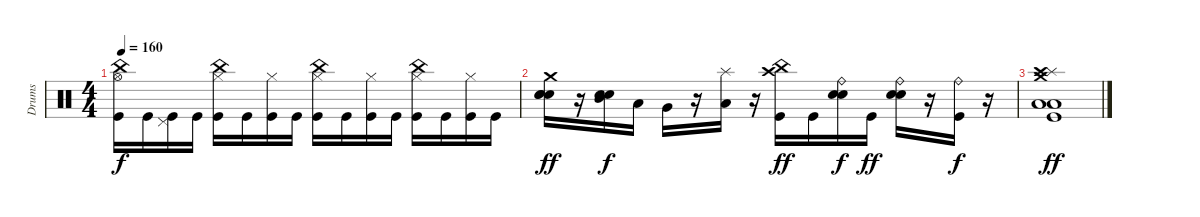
\track ("Drums" "Drums") {instrument percussion}
\staff {score}
\articulation defaults
\ts (4 4)
\tempo 160
\clef neutral
\ks c
("Kick (hit)" "Hi-Hat (open)" "China (hit)").16{dy f} "Kick (hit)".16 ("Kick (hit)" "Pedal Hi-Hat (hit)").16 "Kick (hit)".16 ("Kick (hit)" "Hi-Hat (closed)" "China (hit)").16 "Kick (hit)".16 ("Kick (hit)" "Hi-Hat (closed)").16 "Kick (hit)".16 ("Kick (hit)" "Hi-Hat (closed)" "China (hit)").16 "Kick (hit)".16 ("Kick (hit)" "Hi-Hat (closed)").16 "Kick (hit)".16 ("Kick (hit)" "Hi-Hat (closed)" "China (hit)").16 "Kick (hit)".16 ("Kick (hit)" "Hi-Hat (closed)").16 "Kick (hit)".16 |
("Electric Snare (hit)" "Electric Snare (hit)" "Electric Snare (hit)" "Crash medium (hit)").16{dy ff} r.16 ("Mid Tom (hit)" "Electric Snare (hit)" "Electric Snare (hit)").16{dy f} "Low Tom (hit)".16 "Very Low Tom (hit)".16 r.16 ("Low Floor Tom (hit)" "Splash (hit)").16 r.16 ("Kick (hit)" "China (hit)" "Crash high (hit)").16{dy ff} "Kick (hit)".16 ("Electric Snare (hit)" "Electric Snare (hit)" "Ride (bell)").16{dy f} "Kick (hit)".16{dy ff} ("Electric Snare (hit)" "Electric Snare (hit)" "Ride (bell)").16 r.16 ("Kick (hit)" "Ride (bell)").16{dy f} r.16 |
("Kick (hit)" "Low Floor Tom (hit)" "Low Floor Tom (hit)" "Splash (hit)" "Crash high (hit)" "Crash medium (hit)").1{dy ff}
